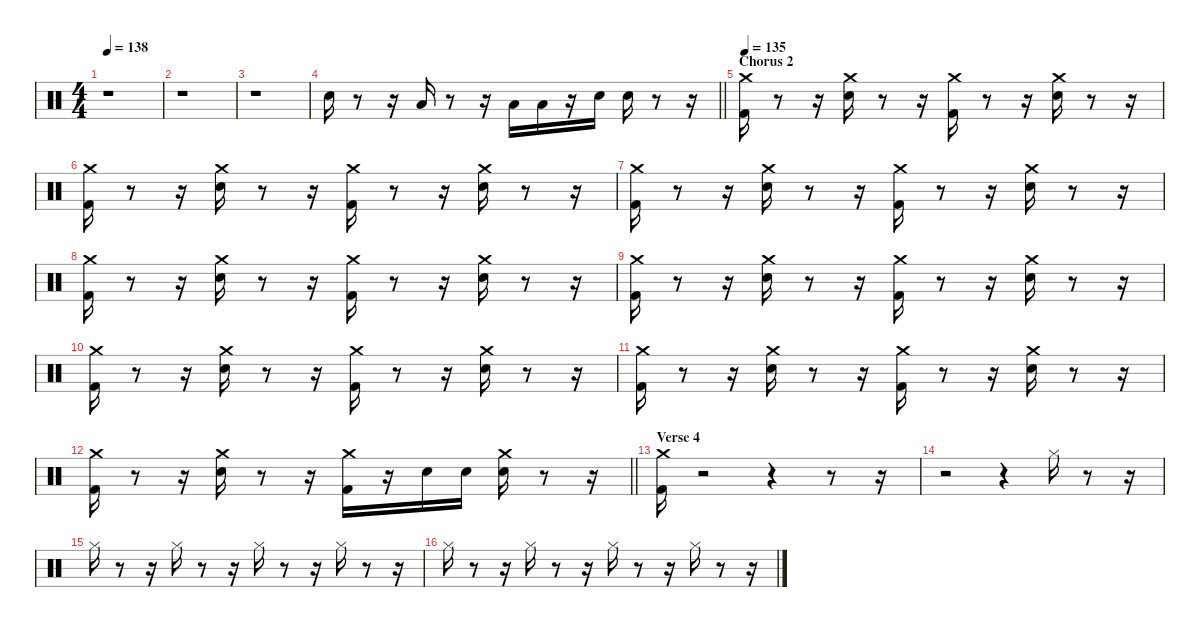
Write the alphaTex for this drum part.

\defaultSystemsLayout 4
\hideDynamics
\bracketExtendMode nobrackets
\singleTrackTrackNamePolicy hidden
\multiTrackTrackNamePolicy hidden
\firstSystemTrackNameMode fullname
\firstSystemTrackNameOrientation horizontal
\otherSystemsTrackNameOrientation horizontal
\track ("John Bonham" "drm.") {instrument percussion}
\staff {score}
\articulation defaults
\ts (4 4)
\tempo 138
\clef neutral
\ks aminor
r.1{dy f beam Down} |
r.1{beam Down} |
r.1{beam Down} |
\barLineRight lightlight "Snare (hit) 2".16{beam Down}
r.8{beam Down} r.16{beam Down} "Low Floor Tom (hit)".16{beam Up} r.8{beam Up} r.16{beam Up} "Low Tom (hit)".16{beam Down} "Low Tom (hit)".16{beam Down} r.16{beam Down} "Snare (hit) 2".16{beam Down} "Snare (hit) 2".16{beam Down} r.8{beam Down} r.16{beam Down} |
\section ("" "Chorus 2")
\tempo 135
("Kick (hit) 2" "Crash medium (hit)").16{beam Down} r.8{beam Down} r.16{beam Down} ("Snare (hit) 2" "Crash medium (hit)").16{beam Down} r.8{beam Down} r.16{beam Down} ("Kick (hit) 2" "Crash medium (hit)").16{beam Down} r.8{beam Down} r.16{beam Down} ("Snare (hit) 2" "Crash medium (hit)").16{beam Down} r.8{beam Down} r.16{beam Down} |
("Kick (hit) 2" "Crash medium (hit)").16{beam Down} r.8{beam Down} r.16{beam Down} ("Snare (hit) 2" "Crash medium (hit)").16{beam Down} r.8{beam Down} r.16{beam Down} ("Kick (hit) 2" "Crash medium (hit)").16{beam Down} r.8{beam Down} r.16{beam Down} ("Snare (hit) 2" "Crash medium (hit)").16{beam Down} r.8{beam Down} r.16{beam Down} |
("Kick (hit) 2" "Crash medium (hit)").16{beam Down} r.8{beam Down} r.16{beam Down} ("Snare (hit) 2" "Crash medium (hit)").16{beam Down} r.8{beam Down} r.16{beam Down} ("Kick (hit) 2" "Crash medium (hit)").16{beam Down} r.8{beam Down} r.16{beam Down} ("Snare (hit) 2" "Crash medium (hit)").16{beam Down} r.8{beam Down} r.16{beam Down} |
("Kick (hit) 2" "Crash medium (hit)").16{beam Down} r.8{beam Down} r.16{beam Down} ("Snare (hit) 2" "Crash medium (hit)").16{beam Down} r.8{beam Down} r.16{beam Down} ("Kick (hit) 2" "Crash medium (hit)").16{beam Down} r.8{beam Down} r.16{beam Down} ("Snare (hit) 2" "Crash medium (hit)").16{beam Down} r.8{beam Down} r.16{beam Down} |
("Kick (hit) 2" "Crash medium (hit)").16{beam Down} r.8{beam Down} r.16{beam Down} ("Snare (hit) 2" "Crash medium (hit)").16{beam Down} r.8{beam Down} r.16{beam Down} ("Kick (hit) 2" "Crash medium (hit)").16{beam Down} r.8{beam Down} r.16{beam Down} ("Snare (hit) 2" "Crash medium (hit)").16{beam Down} r.8{beam Down} r.16{beam Down} |
("Kick (hit) 2" "Crash medium (hit)").16{beam Down} r.8{beam Down} r.16{beam Down} ("Snare (hit) 2" "Crash medium (hit)").16{beam Down} r.8{beam Down} r.16{beam Down} ("Kick (hit) 2" "Crash medium (hit)").16{beam Down} r.8{beam Down} r.16{beam Down} ("Snare (hit) 2" "Crash medium (hit)").16{beam Down} r.8{beam Down} r.16{beam Down} |
("Kick (hit) 2" "Crash medium (hit)").16{beam Down} r.8{beam Down} r.16{beam Down} ("Snare (hit) 2" "Crash medium (hit)").16{beam Down} r.8{beam Down} r.16{beam Down} ("Kick (hit) 2" "Crash medium (hit)").16{beam Down} r.8{beam Down} r.16{beam Down} ("Snare (hit) 2" "Crash medium (hit)").16{beam Down} r.8{beam Down} r.16{beam Down} |
\barLineRight lightlight
("Kick (hit) 2" "Crash medium (hit)").16{beam Down} r.8{beam Down} r.16{beam Down} ("Snare (hit) 2" "Crash medium (hit)").16{beam Down} r.8{beam Down} r.16{beam Down} ("Kick (hit) 2" "Crash medium (hit)").16{beam Down} r.16{beam Down} "Snare (hit) 2".16{beam Down} "Snare (hit) 2".16{beam Down} ("Snare (hit) 2" "Crash medium (hit)").16{beam Down} r.8{beam Down} r.16{beam Down} |
\section ("" "Verse 4")
("Kick (hit) 2" "Crash medium (hit)").16{beam Down} r.2{beam Down} r.4{beam Down} r.8{beam Down} r.16{beam Down} |
r.2{beam Down} r.4{beam Down} "Hi-Hat (closed)".16{beam Down} r.8{beam Down} r.16{beam Down} |
"Hi-Hat (closed)".16{beam Down} r.8{beam Down} r.16{beam Down} "Hi-Hat (closed)".16{beam Down} r.8{beam Down} r.16{beam Down} "Hi-Hat (closed)".16{beam Down} r.8{beam Down} r.16{beam Down} "Hi-Hat (closed)".16{beam Down} r.8{beam Down} r.16{beam Down} |
"Hi-Hat (closed)".16{beam Down} r.8{beam Down} r.16{beam Down} "Hi-Hat (closed)".16{beam Down} r.8{beam Down} r.16{beam Down} "Hi-Hat (closed)".16{beam Down} r.8{beam Down} r.16{beam Down} "Hi-Hat (closed)".16{beam Down} r.8{beam Down} r.16{beam Down}
